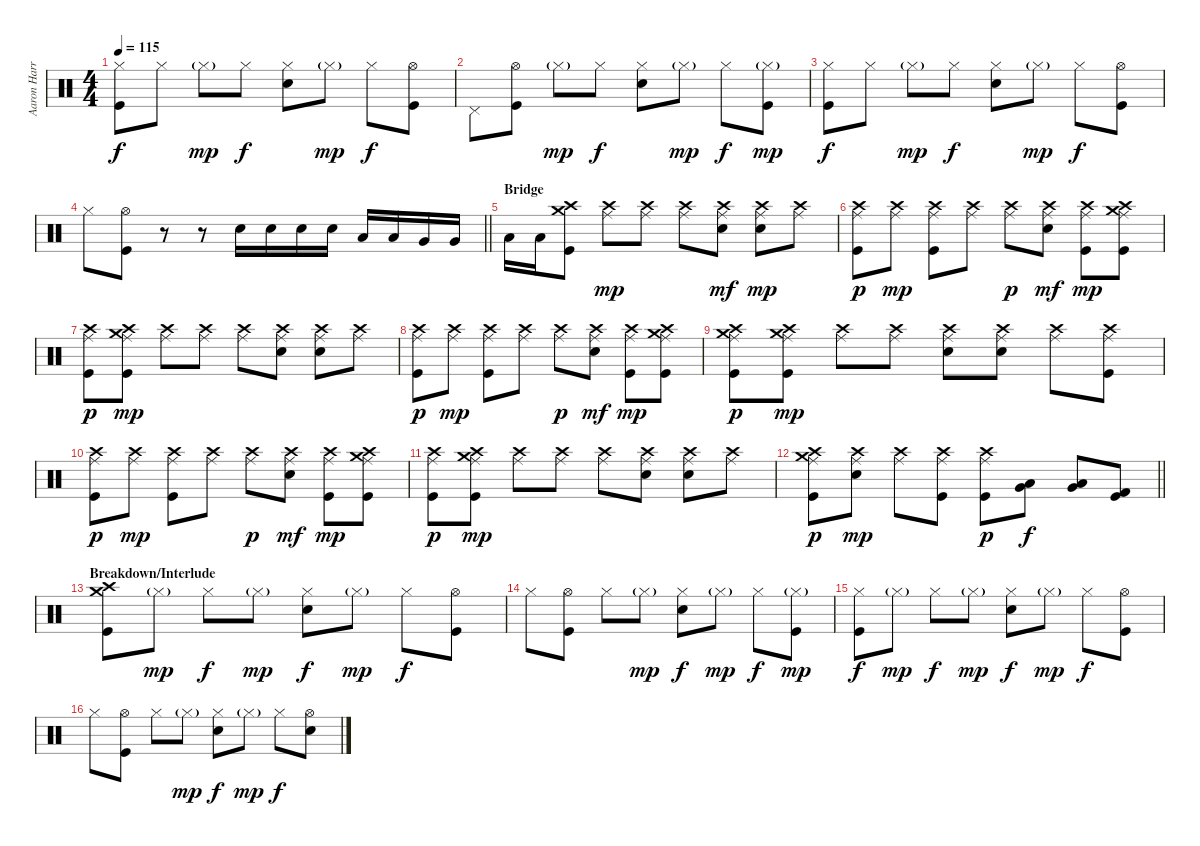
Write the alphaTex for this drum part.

\track ("Aaron Harris" "Aaron Harr") {instrument percussion}
\staff {score}
\articulation defaults
\ts (4 4)
\tempo 115
\clef neutral
\ks c
("Hi-Hat (closed)" "Kick (hit)").8{dy f} "Hi-Hat (closed)".8 "Hi-Hat (closed)"{g}.8{dy mp} "Hi-Hat (closed)".8{dy f} ("Hi-Hat (closed)" "Electric Snare (hit)").8 "Hi-Hat (closed)"{g}.8{dy mp} "Hi-Hat (closed)".8{dy f} ("Hi-Hat (open)" "Kick (hit)").8 |
"Pedal Hi-Hat (hit)".8 ("Hi-Hat (open)" "Kick (hit)").8 "Hi-Hat (closed)"{g}.8{dy mp} "Hi-Hat (closed)".8{dy f} ("Hi-Hat (closed)" "Electric Snare (hit)").8 "Hi-Hat (closed)"{g}.8{dy mp} "Hi-Hat (closed)".8{dy f} ("Hi-Hat (closed)"{g} "Kick (hit)").8{dy mp} |
("Hi-Hat (closed)" "Kick (hit)").8{dy f} "Hi-Hat (closed)".8 "Hi-Hat (closed)"{g}.8{dy mp} "Hi-Hat (closed)".8{dy f} ("Hi-Hat (closed)" "Electric Snare (hit)").8 "Hi-Hat (closed)"{g}.8{dy mp} "Hi-Hat (closed)".8{dy f} ("Hi-Hat (open)" "Kick (hit)").8 |
\barLineRight lightlight "Hi-Hat (closed)".8
("Hi-Hat (open)" "Kick (hit)").8 r.8 r.8 "Electric Snare (hit)".16 "Electric Snare (hit)".16 "Electric Snare (hit)".16 "Electric Snare (hit)".16 "Low Tom (hit)".16 "Low Tom (hit)".16 "Very Low Tom (hit)".16 "Very Low Tom (hit)".16 |
\section ("" "Bridge")
"Low Floor Tom (hit)".16 "Low Floor Tom (hit)".16 ("Crash medium (hit)" "Crash high (hit)" "Kick (hit)").8 ("Crash high (hit)" "Ride (middle)").8{dy mp} ("Crash high (hit)" "Ride (middle)").8 ("Crash high (hit)" "Ride (middle)").8 ("Crash high (hit)" "Ride (middle)" "Electric Snare (hit)").8{dy mf} ("Crash high (hit)" "Ride (middle)" "Electric Snare (hit)").8{dy mp} ("Crash high (hit)" "Ride (middle)").8 |
("Crash high (hit)" "Ride (middle)" "Kick (hit)").8{dy p} ("Crash high (hit)" "Ride (middle)").8{dy mp} ("Crash high (hit)" "Ride (middle)" "Kick (hit)").8 ("Crash high (hit)" "Ride (middle)").8 ("Crash high (hit)" "Ride (middle)").8{dy p} ("Crash high (hit)" "Ride (middle)" "Electric Snare (hit)").8{dy mf} ("Crash high (hit)" "Ride (middle)" "Kick (hit)").8{dy mp} ("Crash medium (hit)" "Crash high (hit)" "Ride (middle)" "Kick (hit)").8 |
("Crash high (hit)" "Ride (middle)" "Kick (hit)").8{dy p} ("Crash medium (hit)" "Crash high (hit)" "Ride (middle)" "Kick (hit)").8{dy mp} ("Crash high (hit)" "Ride (middle)").8 ("Crash high (hit)" "Ride (middle)").8 ("Crash high (hit)" "Ride (middle)").8 ("Crash high (hit)" "Ride (middle)" "Electric Snare (hit)").8 ("Crash high (hit)" "Ride (middle)" "Electric Snare (hit)").8 ("Crash high (hit)" "Ride (middle)").8 |
("Crash high (hit)" "Ride (middle)" "Kick (hit)").8{dy p} ("Crash high (hit)" "Ride (middle)").8{dy mp} ("Crash high (hit)" "Ride (middle)" "Kick (hit)").8 ("Crash high (hit)" "Ride (middle)").8 ("Crash high (hit)" "Ride (middle)").8{dy p} ("Crash high (hit)" "Ride (middle)" "Electric Snare (hit)").8{dy mf} ("Crash high (hit)" "Ride (middle)" "Kick (hit)").8{dy mp} ("Crash medium (hit)" "Crash high (hit)" "Ride (middle)" "Kick (hit)").8 |
("Crash medium (hit)" "Crash high (hit)" "Ride (middle)" "Kick (hit)").8{dy p} ("Crash medium (hit)" "Crash high (hit)" "Ride (middle)" "Kick (hit)").8{dy mp} ("Crash high (hit)" "Ride (middle)").8 ("Crash high (hit)" "Ride (middle)").8 ("Crash high (hit)" "Ride (middle)" "Electric Snare (hit)").8 ("Crash high (hit)" "Ride (middle)" "Electric Snare (hit)").8 ("Crash high (hit)" "Ride (middle)").8 ("Crash high (hit)" "Ride (middle)" "Kick (hit)").8 |
("Crash high (hit)" "Ride (middle)" "Kick (hit)").8{dy p} ("Crash high (hit)" "Ride (middle)").8{dy mp} ("Crash high (hit)" "Ride (middle)" "Kick (hit)").8 ("Crash high (hit)" "Ride (middle)").8 ("Crash high (hit)" "Ride (middle)").8{dy p} ("Crash high (hit)" "Ride (middle)" "Electric Snare (hit)").8{dy mf} ("Crash high (hit)" "Ride (middle)" "Kick (hit)").8{dy mp} ("Crash medium (hit)" "Crash high (hit)" "Ride (middle)" "Kick (hit)").8 |
("Crash high (hit)" "Ride (middle)" "Kick (hit)").8{dy p} ("Crash medium (hit)" "Crash high (hit)" "Ride (middle)" "Kick (hit)").8{dy mp} ("Crash high (hit)" "Ride (middle)").8 ("Crash high (hit)" "Ride (middle)").8 ("Crash high (hit)" "Ride (middle)").8 ("Crash high (hit)" "Ride (middle)" "Electric Snare (hit)").8 ("Crash high (hit)" "Ride (middle)" "Electric Snare (hit)").8 ("Crash high (hit)" "Ride (middle)").8 |
\barLineRight lightlight
("Crash medium (hit)" "Crash high (hit)" "Ride (middle)" "Kick (hit)").8{dy p} ("Crash high (hit)" "Ride (middle)" "Electric Snare (hit)").8{dy mp} ("Crash high (hit)" "Ride (middle)").8 ("Crash high (hit)" "Ride (middle)" "Kick (hit)").8 ("Crash high (hit)" "Ride (middle)" "Kick (hit)").8{dy p} ("Low Tom (hit)" "Very Low Tom (hit)").8{dy f} ("Low Tom (hit)" "Very Low Tom (hit)").8 ("Kick (hit) 2" "Kick (hit)").8 |
\section ("" "Breakdown/Interlude")
("Crash medium (hit)" "Crash high (hit)" "Kick (hit)").8 "Hi-Hat (closed)"{g}.8{dy mp} "Hi-Hat (closed)".8{dy f} "Hi-Hat (closed)"{g}.8{dy mp} ("Hi-Hat (closed)" "Electric Snare (hit)").8{dy f} "Hi-Hat (closed)"{g}.8{dy mp} "Hi-Hat (closed)".8{dy f} ("Hi-Hat (open)" "Kick (hit)").8 |
"Hi-Hat (closed)".8 ("Hi-Hat (open)" "Kick (hit)").8 "Hi-Hat (closed)".8 "Hi-Hat (closed)"{g}.8{dy mp} ("Hi-Hat (closed)" "Electric Snare (hit)").8{dy f} "Hi-Hat (closed)"{g}.8{dy mp} "Hi-Hat (closed)".8{dy f} ("Hi-Hat (closed)"{g} "Kick (hit)").8{dy mp} |
("Hi-Hat (closed)" "Kick (hit)").8{dy f} "Hi-Hat (closed)"{g}.8{dy mp} "Hi-Hat (closed)".8{dy f} "Hi-Hat (closed)"{g}.8{dy mp} ("Hi-Hat (closed)" "Electric Snare (hit)").8{dy f} "Hi-Hat (closed)"{g}.8{dy mp} "Hi-Hat (closed)".8{dy f} ("Hi-Hat (open)" "Kick (hit)").8 |
"Hi-Hat (closed)".8 ("Hi-Hat (open)" "Kick (hit)").8 "Hi-Hat (closed)".8 "Hi-Hat (closed)"{g}.8{dy mp} ("Hi-Hat (closed)" "Electric Snare (hit)").8{dy f} "Hi-Hat (closed)"{g}.8{dy mp} "Hi-Hat (closed)".8{dy f} ("Hi-Hat (open)" "Electric Snare (hit)").8
